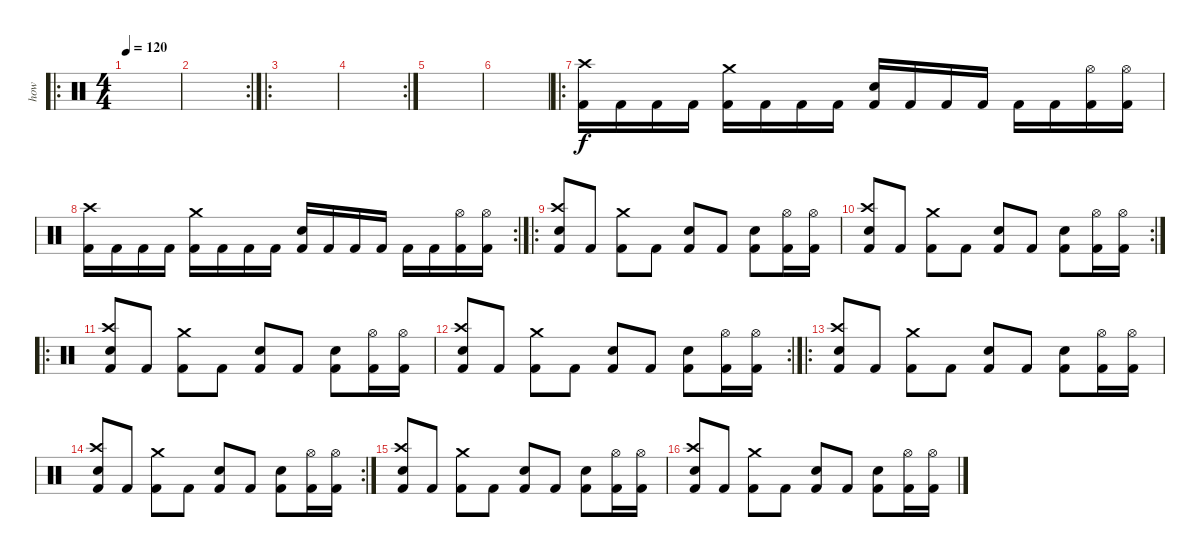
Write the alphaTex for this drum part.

\track ("how" "how") {instrument percussion}
\staff {score}
\articulation defaults
\ro
\ts (4 4)
\tempo 120
\clef neutral
\ks c
|
\rc 2
|
\ro
|
\rc 2
|
|
|
\ro
("Kick (hit) 2" "Crash high (hit)").16 "Kick (hit) 2".16 "Kick (hit) 2".16 "Kick (hit) 2".16 ("Kick (hit) 2" "Crash medium (hit)").16 "Kick (hit) 2".16 "Kick (hit) 2".16 "Kick (hit) 2".16 ("Kick (hit) 2" "Electric Snare (hit)").16 "Kick (hit) 2".16 "Kick (hit) 2".16 "Kick (hit) 2".16 "Kick (hit) 2".16 "Kick (hit) 2".16 ("Kick (hit) 2" "Hi-Hat (open)").16 ("Kick (hit) 2" "Hi-Hat (open)").16 |
\rc 2
("Kick (hit) 2" "Crash high (hit)").16 "Kick (hit) 2".16 "Kick (hit) 2".16 "Kick (hit) 2".16 ("Kick (hit) 2" "Crash medium (hit)").16 "Kick (hit) 2".16 "Kick (hit) 2".16 "Kick (hit) 2".16 ("Kick (hit) 2" "Electric Snare (hit)").16 "Kick (hit) 2".16 "Kick (hit) 2".16 "Kick (hit) 2".16 "Kick (hit) 2".16 "Kick (hit) 2".16 ("Kick (hit) 2" "Hi-Hat (open)").16 ("Kick (hit) 2" "Hi-Hat (open)").16 |
\ro
("Kick (hit) 2" "Electric Snare (hit)" "Crash high (hit)").8 "Kick (hit) 2".8 ("Kick (hit) 2" "Crash medium (hit)").8 "Kick (hit) 2".8 ("Kick (hit) 2" "Electric Snare (hit)").8 "Kick (hit) 2".8 ("Kick (hit) 2" "Electric Snare (hit)").8 ("Kick (hit) 2" "Hi-Hat (open)").16 ("Kick (hit) 2" "Hi-Hat (open)").16 |
\rc 2
("Kick (hit) 2" "Electric Snare (hit)" "Crash high (hit)").8 "Kick (hit) 2".8 ("Kick (hit) 2" "Crash medium (hit)").8 "Kick (hit) 2".8 ("Kick (hit) 2" "Electric Snare (hit)").8 "Kick (hit) 2".8 ("Kick (hit) 2" "Electric Snare (hit)").8 ("Kick (hit) 2" "Hi-Hat (open)").16 ("Kick (hit) 2" "Hi-Hat (open)").16 |
\ro
("Kick (hit) 2" "Electric Snare (hit)" "Crash high (hit)").8 "Kick (hit) 2".8 ("Kick (hit) 2" "Crash medium (hit)").8 "Kick (hit) 2".8 ("Kick (hit) 2" "Electric Snare (hit)").8 "Kick (hit) 2".8 ("Kick (hit) 2" "Electric Snare (hit)").8 ("Kick (hit) 2" "Hi-Hat (open)").16 ("Kick (hit) 2" "Hi-Hat (open)").16 |
\rc 2
("Kick (hit) 2" "Electric Snare (hit)" "Crash high (hit)").8 "Kick (hit) 2".8 ("Kick (hit) 2" "Crash medium (hit)").8 "Kick (hit) 2".8 ("Kick (hit) 2" "Electric Snare (hit)").8 "Kick (hit) 2".8 ("Kick (hit) 2" "Electric Snare (hit)").8 ("Kick (hit) 2" "Hi-Hat (open)").16 ("Kick (hit) 2" "Hi-Hat (open)").16 |
\ro
("Kick (hit) 2" "Electric Snare (hit)" "Crash high (hit)").8 "Kick (hit) 2".8 ("Kick (hit) 2" "Crash medium (hit)").8 "Kick (hit) 2".8 ("Kick (hit) 2" "Electric Snare (hit)").8 "Kick (hit) 2".8 ("Kick (hit) 2" "Electric Snare (hit)").8 ("Kick (hit) 2" "Hi-Hat (open)").16 ("Kick (hit) 2" "Hi-Hat (open)").16 |
\rc 2
("Kick (hit) 2" "Electric Snare (hit)" "Crash high (hit)").8 "Kick (hit) 2".8 ("Kick (hit) 2" "Crash medium (hit)").8 "Kick (hit) 2".8 ("Kick (hit) 2" "Electric Snare (hit)").8 "Kick (hit) 2".8 ("Kick (hit) 2" "Electric Snare (hit)").8 ("Kick (hit) 2" "Hi-Hat (open)").16 ("Kick (hit) 2" "Hi-Hat (open)").16 |
("Kick (hit) 2" "Electric Snare (hit)" "Crash high (hit)").8 "Kick (hit) 2".8 ("Kick (hit) 2" "Crash medium (hit)").8 "Kick (hit) 2".8 ("Kick (hit) 2" "Electric Snare (hit)").8 "Kick (hit) 2".8 ("Kick (hit) 2" "Electric Snare (hit)").8 ("Kick (hit) 2" "Hi-Hat (open)").16 ("Kick (hit) 2" "Hi-Hat (open)").16 |
("Kick (hit) 2" "Electric Snare (hit)" "Crash high (hit)").8 "Kick (hit) 2".8 ("Kick (hit) 2" "Crash medium (hit)").8 "Kick (hit) 2".8 ("Kick (hit) 2" "Electric Snare (hit)").8 "Kick (hit) 2".8 ("Kick (hit) 2" "Electric Snare (hit)").8 ("Kick (hit) 2" "Hi-Hat (open)").16 ("Kick (hit) 2" "Hi-Hat (open)").16
